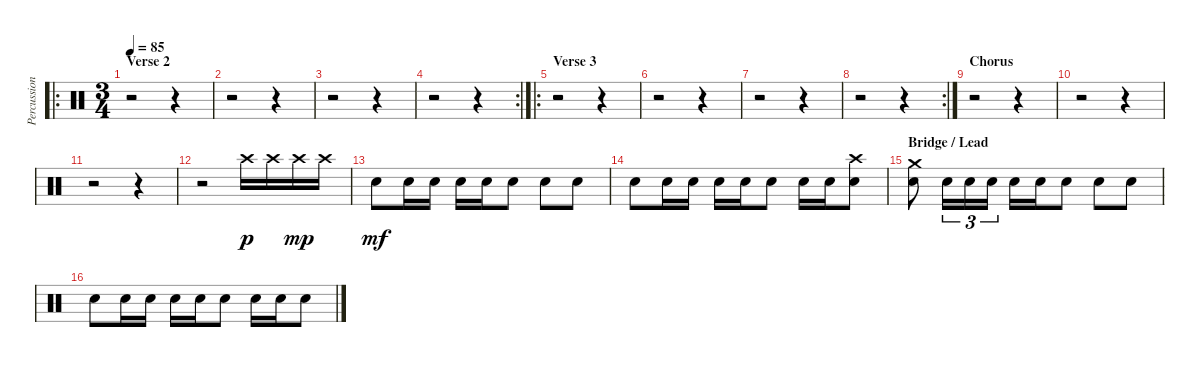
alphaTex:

\track ("Percussion" "Percussion") {instrument percussion}
\staff {score}
\articulation defaults
\ro
\ts (3 4)
\section ("" "Verse 2")
\tempo 85
\clef neutral
\ks c
r.2{dy p} r.4 |
r.2 r.4 |
r.2 r.4 |
\rc 2
r.2 r.4 |
\ro
\section ("" "Verse 3")
r.2 r.4 |
r.2 r.4 |
r.2 r.4 |
\rc 2
r.2 r.4 |
\section ("" "Chorus")
r.2 r.4 |
r.2 r.4 |
r.2 r.4 |
r.2 "Crash high (hit)".16 "Crash high (hit)".16 "Crash high (hit)".16{dy mp} "Crash high (hit)".16 |
"Electric Snare (hit)".8{dy mf} "Electric Snare (hit)".16 "Electric Snare (hit)".16 "Electric Snare (hit)".16 "Electric Snare (hit)".16 "Electric Snare (hit)".8 "Electric Snare (hit)".8 "Electric Snare (hit)".8 |
"Electric Snare (hit)".8 "Electric Snare (hit)".16 "Electric Snare (hit)".16 "Electric Snare (hit)".16 "Electric Snare (hit)".16 "Electric Snare (hit)".8 "Electric Snare (hit)".16 "Electric Snare (hit)".16 ("Crash high (hit)" "Electric Snare (hit)").8 |
\section ("" "Bridge / Lead")
("Crash medium (hit)" "Electric Snare (hit)").8 "Electric Snare (hit)".16{tu (3 2)} "Electric Snare (hit)".16{tu (3 2)} "Electric Snare (hit)".16{tu (3 2)} "Electric Snare (hit)".16 "Electric Snare (hit)".16 "Electric Snare (hit)".8 "Electric Snare (hit)".8 "Electric Snare (hit)".8 |
"Electric Snare (hit)".8 "Electric Snare (hit)".16 "Electric Snare (hit)".16 "Electric Snare (hit)".16 "Electric Snare (hit)".16 "Electric Snare (hit)".8 "Electric Snare (hit)".16 "Electric Snare (hit)".16 "Electric Snare (hit)".8
